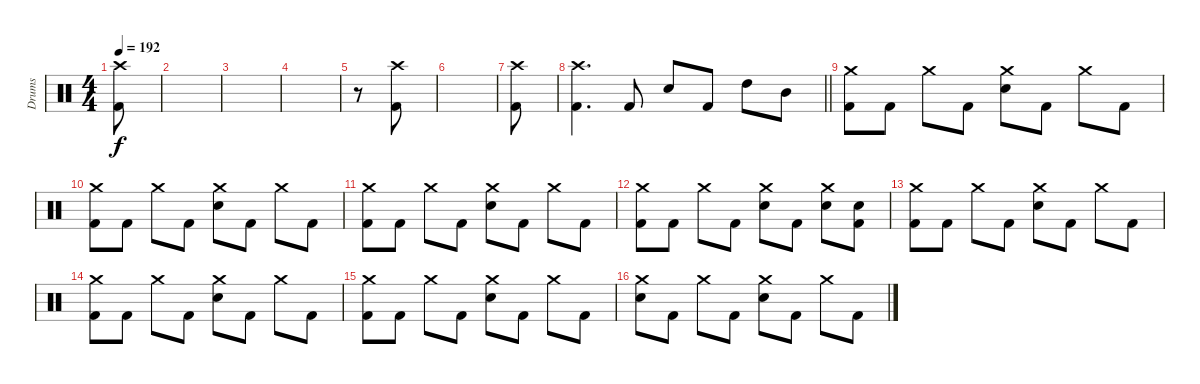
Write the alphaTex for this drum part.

\track ("Drums" "Drums") {instrument percussion}
\staff {score}
\articulation defaults
\ts (4 4)
\tempo 192
\clef neutral
\ks c
("Crash high (hit)" "Kick (hit) 2").8{dy f} |
|
|
|
r.8 ("Crash high (hit)" "Kick (hit) 2").8 |
|
("Crash high (hit)" "Kick (hit) 2").8 |
\barLineRight lightlight
("Crash high (hit)" "Kick (hit) 2").4{d} "Kick (hit) 2".8 "Electric Snare (hit)".8 "Kick (hit) 2".8 "High Tom (hit)".8 "Mid Tom (hit)".8 |
\section ("" "")
("Crash medium (hit)" "Kick (hit) 2").8 "Kick (hit) 2".8 "Crash medium (hit)".8 "Kick (hit) 2".8 ("Crash medium (hit)" "Electric Snare (hit)").8 "Kick (hit) 2".8 "Crash medium (hit)".8 "Kick (hit) 2".8 |
("Crash medium (hit)" "Kick (hit) 2").8 "Kick (hit) 2".8 "Crash medium (hit)".8 "Kick (hit) 2".8 ("Crash medium (hit)" "Electric Snare (hit)").8 "Kick (hit) 2".8 "Crash medium (hit)".8 "Kick (hit) 2".8 |
("Crash medium (hit)" "Kick (hit) 2").8 "Kick (hit) 2".8 "Crash medium (hit)".8 "Kick (hit) 2".8 ("Crash medium (hit)" "Electric Snare (hit)").8 "Kick (hit) 2".8 "Crash medium (hit)".8 "Kick (hit) 2".8 |
("Crash medium (hit)" "Kick (hit) 2").8 "Kick (hit) 2".8 "Crash medium (hit)".8 "Kick (hit) 2".8 ("Crash medium (hit)" "Electric Snare (hit)").8 "Kick (hit) 2".8 ("Crash medium (hit)" "Electric Snare (hit)").8 ("Electric Snare (hit)" "Kick (hit) 2").8 |
("Crash medium (hit)" "Kick (hit) 2").8 "Kick (hit) 2".8 "Crash medium (hit)".8 "Kick (hit) 2".8 ("Crash medium (hit)" "Electric Snare (hit)").8 "Kick (hit) 2".8 "Crash medium (hit)".8 "Kick (hit) 2".8 |
("Crash medium (hit)" "Kick (hit) 2").8 "Kick (hit) 2".8 "Crash medium (hit)".8 "Kick (hit) 2".8 ("Crash medium (hit)" "Electric Snare (hit)").8 "Kick (hit) 2".8 "Crash medium (hit)".8 "Kick (hit) 2".8 |
("Crash medium (hit)" "Kick (hit) 2").8 "Kick (hit) 2".8 "Crash medium (hit)".8 "Kick (hit) 2".8 ("Crash medium (hit)" "Electric Snare (hit)").8 "Kick (hit) 2".8 "Crash medium (hit)".8 "Kick (hit) 2".8 |
("Crash medium (hit)" "Electric Snare (hit)").8 "Kick (hit) 2".8 "Crash medium (hit)".8 "Kick (hit) 2".8 ("Crash medium (hit)" "Electric Snare (hit)").8 "Kick (hit) 2".8 "Crash medium (hit)".8 "Kick (hit) 2".8
